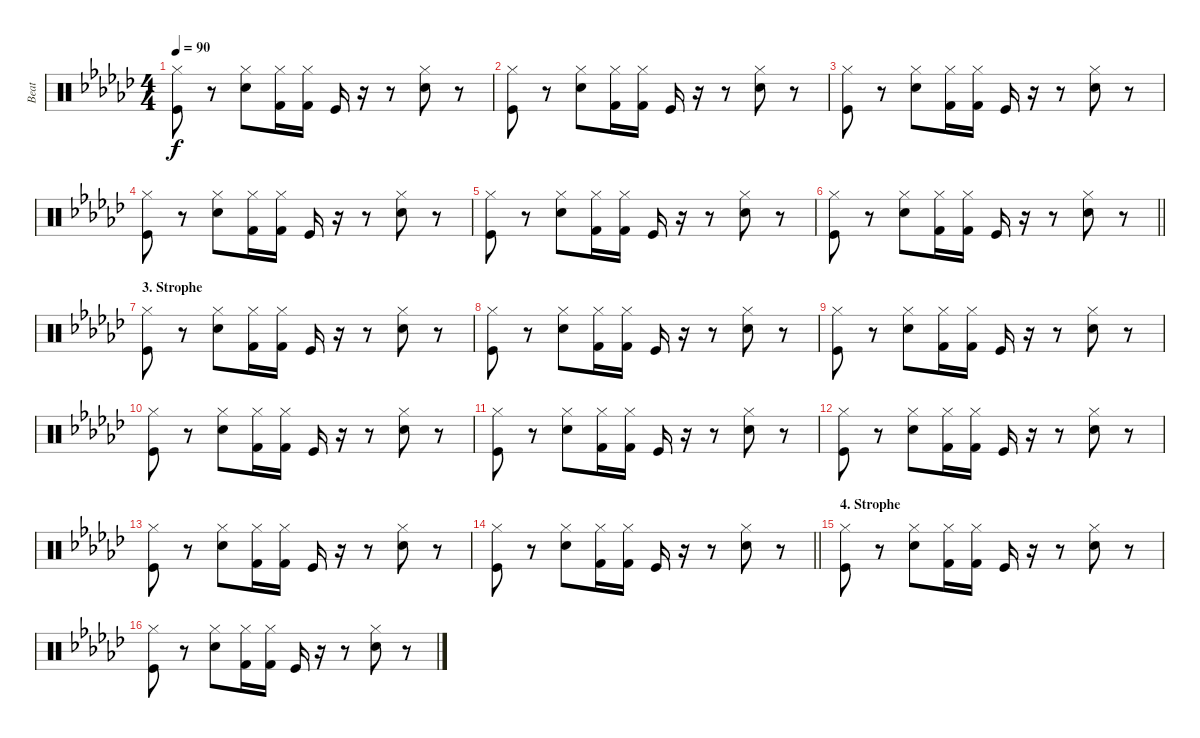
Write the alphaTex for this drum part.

\track ("Beat" "Beat") {instrument percussion}
\staff {score}
\articulation defaults
\ts (4 4)
\tempo 90
\clef neutral
\ks ebminor
("Hi-Hat (closed)" "Kick (hit)").8{dy f} r.8 ("Hi-Hat (closed)" "Electric Snare (hit)").8 ("Hi-Hat (closed)" "Kick (hit) 2").16 ("Hi-Hat (closed)" "Kick (hit) 2").16 "Kick (hit)".16 r.16 r.8 ("Hi-Hat (closed)" "Electric Snare (hit)").8 r.8 |
("Hi-Hat (closed)" "Kick (hit)").8 r.8 ("Hi-Hat (closed)" "Electric Snare (hit)").8 ("Hi-Hat (closed)" "Kick (hit) 2").16 ("Hi-Hat (closed)" "Kick (hit) 2").16 "Kick (hit)".16 r.16 r.8 ("Hi-Hat (closed)" "Electric Snare (hit)").8 r.8 |
("Hi-Hat (closed)" "Kick (hit)").8 r.8 ("Hi-Hat (closed)" "Electric Snare (hit)").8 ("Hi-Hat (closed)" "Kick (hit) 2").16 ("Hi-Hat (closed)" "Kick (hit) 2").16 "Kick (hit)".16 r.16 r.8 ("Hi-Hat (closed)" "Electric Snare (hit)").8 r.8 |
("Hi-Hat (closed)" "Kick (hit)").8 r.8 ("Hi-Hat (closed)" "Electric Snare (hit)").8 ("Hi-Hat (closed)" "Kick (hit) 2").16 ("Hi-Hat (closed)" "Kick (hit) 2").16 "Kick (hit)".16 r.16 r.8 ("Hi-Hat (closed)" "Electric Snare (hit)").8 r.8 |
("Hi-Hat (closed)" "Kick (hit)").8 r.8 ("Hi-Hat (closed)" "Electric Snare (hit)").8 ("Hi-Hat (closed)" "Kick (hit) 2").16 ("Hi-Hat (closed)" "Kick (hit) 2").16 "Kick (hit)".16 r.16 r.8 ("Hi-Hat (closed)" "Electric Snare (hit)").8 r.8 |
\barLineRight lightlight
("Hi-Hat (closed)" "Kick (hit)").8 r.8 ("Hi-Hat (closed)" "Electric Snare (hit)").8 ("Hi-Hat (closed)" "Kick (hit) 2").16 ("Hi-Hat (closed)" "Kick (hit) 2").16 "Kick (hit)".16 r.16 r.8 ("Hi-Hat (closed)" "Electric Snare (hit)").8 r.8 |
\section ("" "3. Strophe")
("Hi-Hat (closed)" "Kick (hit)").8 r.8 ("Hi-Hat (closed)" "Electric Snare (hit)").8 ("Hi-Hat (closed)" "Kick (hit) 2").16 ("Hi-Hat (closed)" "Kick (hit) 2").16 "Kick (hit)".16 r.16 r.8 ("Hi-Hat (closed)" "Electric Snare (hit)").8 r.8 |
("Hi-Hat (closed)" "Kick (hit)").8 r.8 ("Hi-Hat (closed)" "Electric Snare (hit)").8 ("Hi-Hat (closed)" "Kick (hit) 2").16 ("Hi-Hat (closed)" "Kick (hit) 2").16 "Kick (hit)".16 r.16 r.8 ("Hi-Hat (closed)" "Electric Snare (hit)").8 r.8 |
("Hi-Hat (closed)" "Kick (hit)").8 r.8 ("Hi-Hat (closed)" "Electric Snare (hit)").8 ("Hi-Hat (closed)" "Kick (hit) 2").16 ("Hi-Hat (closed)" "Kick (hit) 2").16 "Kick (hit)".16 r.16 r.8 ("Hi-Hat (closed)" "Electric Snare (hit)").8 r.8 |
("Hi-Hat (closed)" "Kick (hit)").8 r.8 ("Hi-Hat (closed)" "Electric Snare (hit)").8 ("Hi-Hat (closed)" "Kick (hit) 2").16 ("Hi-Hat (closed)" "Kick (hit) 2").16 "Kick (hit)".16 r.16 r.8 ("Hi-Hat (closed)" "Electric Snare (hit)").8 r.8 |
("Hi-Hat (closed)" "Kick (hit)").8 r.8 ("Hi-Hat (closed)" "Electric Snare (hit)").8 ("Hi-Hat (closed)" "Kick (hit) 2").16 ("Hi-Hat (closed)" "Kick (hit) 2").16 "Kick (hit)".16 r.16 r.8 ("Hi-Hat (closed)" "Electric Snare (hit)").8 r.8 |
("Hi-Hat (closed)" "Kick (hit)").8 r.8 ("Hi-Hat (closed)" "Electric Snare (hit)").8 ("Hi-Hat (closed)" "Kick (hit) 2").16 ("Hi-Hat (closed)" "Kick (hit) 2").16 "Kick (hit)".16 r.16 r.8 ("Hi-Hat (closed)" "Electric Snare (hit)").8 r.8 |
("Hi-Hat (closed)" "Kick (hit)").8 r.8 ("Hi-Hat (closed)" "Electric Snare (hit)").8 ("Hi-Hat (closed)" "Kick (hit) 2").16 ("Hi-Hat (closed)" "Kick (hit) 2").16 "Kick (hit)".16 r.16 r.8 ("Hi-Hat (closed)" "Electric Snare (hit)").8 r.8 |
\barLineRight lightlight
("Hi-Hat (closed)" "Kick (hit)").8 r.8 ("Hi-Hat (closed)" "Electric Snare (hit)").8 ("Hi-Hat (closed)" "Kick (hit) 2").16 ("Hi-Hat (closed)" "Kick (hit) 2").16 "Kick (hit)".16 r.16 r.8 ("Hi-Hat (closed)" "Electric Snare (hit)").8 r.8 |
\section ("" "4. Strophe")
("Hi-Hat (closed)" "Kick (hit)").8 r.8 ("Hi-Hat (closed)" "Electric Snare (hit)").8 ("Hi-Hat (closed)" "Kick (hit) 2").16 ("Hi-Hat (closed)" "Kick (hit) 2").16 "Kick (hit)".16 r.16 r.8 ("Hi-Hat (closed)" "Electric Snare (hit)").8 r.8 |
("Hi-Hat (closed)" "Kick (hit)").8 r.8 ("Hi-Hat (closed)" "Electric Snare (hit)").8 ("Hi-Hat (closed)" "Kick (hit) 2").16 ("Hi-Hat (closed)" "Kick (hit) 2").16 "Kick (hit)".16 r.16 r.8 ("Hi-Hat (closed)" "Electric Snare (hit)").8 r.8
